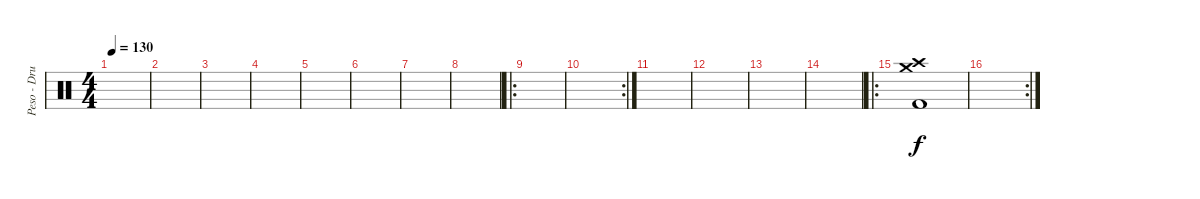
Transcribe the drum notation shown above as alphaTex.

\track ("Peso - Drums" "Peso - Dru") {instrument percussion}
\staff {score}
\articulation defaults
\ts (4 4)
\tempo 130
\clef neutral
\ks c
|
|
|
|
|
|
|
|
\ro
|
\rc 2
|
|
|
|
|
\ro
("Crash medium (hit)" "Crash high (hit)" "Kick (hit) 2").1 |
\rc 2
